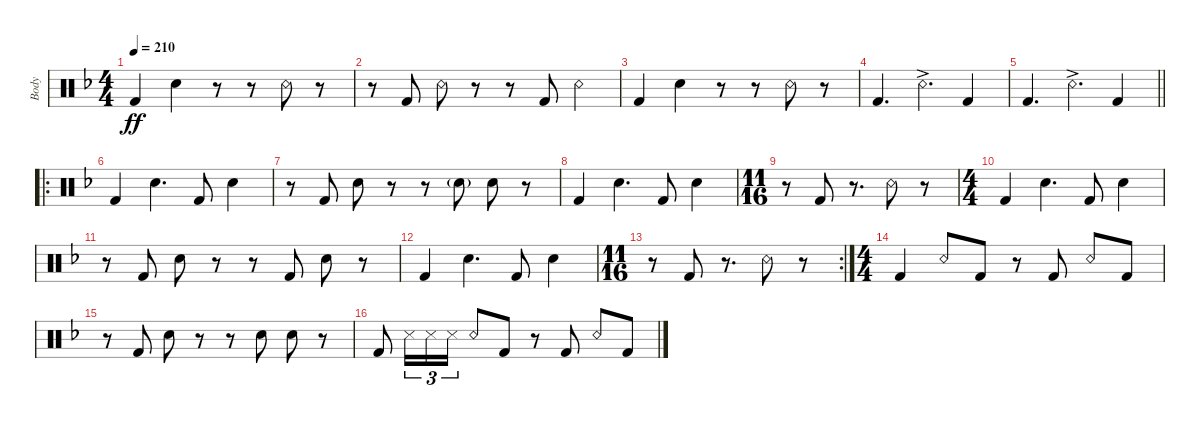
\track ("Body" "Body") {instrument percussion}
\staff {score}
\articulation defaults
\ts (4 4)
\tempo 210
\clef neutral
\ks dminor "Kick (hit) 2".4{dy ff} "Snare (hit) 2".4
r.8 r.8 "Snare (rim shot)".8 r.8 |
r.8 "Kick (hit) 2".8 "Snare (rim shot)".8 r.8 r.8 "Kick (hit) 2".8 "Snare (rim shot)".4 |
"Kick (hit) 2".4 "Snare (hit) 2".4 r.8 r.8 "Snare (rim shot)".8 r.8 |
"Kick (hit) 2".4{d} "Snare (rim shot)"{ac}.4{d} "Kick (hit) 2".4 |
\barLineRight lightlight "Kick (hit) 2".4{d} "Snare (rim shot)"{ac}.4{d} "Kick (hit) 2".4
|
\ro "Kick (hit) 2".4 "Snare (hit) 2".4{d} "Kick (hit) 2".8 "Snare (hit) 2".4
|
r.8 "Kick (hit) 2".8 "Snare (hit) 2".8 r.8 r.8 "Snare (hit) 2"{g}.8 "Snare (hit) 2".8 r.8 |
"Kick (hit) 2".4 "Snare (hit) 2".4{d} "Kick (hit) 2".8 "Snare (hit) 2".4 |
\ts (11 16)
r.8 "Kick (hit) 2".8 r.8{d} "Snare (rim shot)".8 r.8 |
\ts (4 4)
"Kick (hit) 2".4 "Snare (hit) 2".4{d} "Kick (hit) 2".8 "Snare (hit) 2".4 |
r.8 "Kick (hit) 2".8 "Snare (hit) 2".8 r.8 r.8 "Kick (hit) 2".8 "Snare (hit) 2".8 r.8 |
"Kick (hit) 2".4 "Snare (hit) 2".4{d} "Kick (hit) 2".8 "Snare (hit) 2".4 |
\rc 2
\ts (11 16)
r.8 "Kick (hit) 2".8 r.8{d} "Snare (rim shot)".8 r.8 |
\ts (4 4)
"Kick (hit) 2".4 "Snare (rim shot)".8 "Kick (hit) 2".8 r.8 "Kick (hit) 2".8 "Snare (rim shot)".8 "Kick (hit) 2".8 |
r.8 "Kick (hit) 2".8 "Snare (hit) 2".8 r.8 r.8 "Snare (hit) 2".8 "Snare (hit) 2".8 r.8 |
"Kick (hit) 2".8 "Snare (side stick) 3".16{tu (3 2)} "Snare (side stick) 3".16{tu (3 2)} "Snare (side stick) 3".16{tu (3 2)} "Snare (rim shot)".8 "Kick (hit) 2".8 r.8 "Kick (hit) 2".8 "Snare (rim shot)".8 "Kick (hit) 2".8
